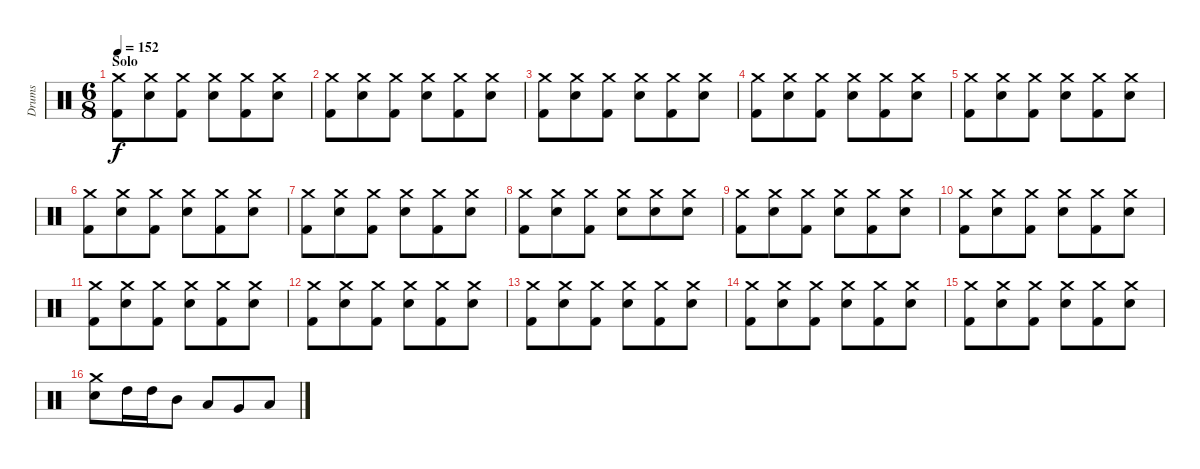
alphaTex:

\track ("Drums" "Drums") {instrument percussion}
\staff {score}
\articulation defaults
\ts (6 8)
\section ("" "Solo")
\tempo 152
\clef neutral
\ks c
("Crash medium (hit)" "Kick (hit) 2").8{dy f} ("Crash medium (hit)" "Electric Snare (hit)").8 ("Crash medium (hit)" "Kick (hit) 2").8 ("Crash medium (hit)" "Electric Snare (hit)").8 ("Crash medium (hit)" "Kick (hit) 2").8 ("Crash medium (hit)" "Electric Snare (hit)").8 |
("Crash medium (hit)" "Kick (hit) 2").8 ("Crash medium (hit)" "Electric Snare (hit)").8 ("Crash medium (hit)" "Kick (hit) 2").8 ("Crash medium (hit)" "Electric Snare (hit)").8 ("Crash medium (hit)" "Kick (hit) 2").8 ("Crash medium (hit)" "Electric Snare (hit)").8 |
("Crash medium (hit)" "Kick (hit) 2").8 ("Crash medium (hit)" "Electric Snare (hit)").8 ("Crash medium (hit)" "Kick (hit) 2").8 ("Crash medium (hit)" "Electric Snare (hit)").8 ("Crash medium (hit)" "Kick (hit) 2").8 ("Crash medium (hit)" "Electric Snare (hit)").8 |
("Crash medium (hit)" "Kick (hit) 2").8 ("Crash medium (hit)" "Electric Snare (hit)").8 ("Crash medium (hit)" "Kick (hit) 2").8 ("Crash medium (hit)" "Electric Snare (hit)").8 ("Crash medium (hit)" "Kick (hit) 2").8 ("Crash medium (hit)" "Electric Snare (hit)").8 |
("Crash medium (hit)" "Kick (hit) 2").8 ("Crash medium (hit)" "Electric Snare (hit)").8 ("Crash medium (hit)" "Kick (hit) 2").8 ("Crash medium (hit)" "Electric Snare (hit)").8 ("Crash medium (hit)" "Kick (hit) 2").8 ("Crash medium (hit)" "Electric Snare (hit)").8 |
("Crash medium (hit)" "Kick (hit) 2").8 ("Crash medium (hit)" "Electric Snare (hit)").8 ("Crash medium (hit)" "Kick (hit) 2").8 ("Crash medium (hit)" "Electric Snare (hit)").8 ("Crash medium (hit)" "Kick (hit) 2").8 ("Crash medium (hit)" "Electric Snare (hit)").8 |
("Crash medium (hit)" "Kick (hit) 2").8 ("Crash medium (hit)" "Electric Snare (hit)").8 ("Crash medium (hit)" "Kick (hit) 2").8 ("Crash medium (hit)" "Electric Snare (hit)").8 ("Crash medium (hit)" "Kick (hit) 2").8 ("Crash medium (hit)" "Electric Snare (hit)").8 |
("Crash medium (hit)" "Kick (hit) 2").8 ("Crash medium (hit)" "Electric Snare (hit)").8 ("Crash medium (hit)" "Kick (hit) 2").8 ("Crash medium (hit)" "Electric Snare (hit)").8 ("Crash medium (hit)" "Electric Snare (hit)").8 ("Crash medium (hit)" "Electric Snare (hit)").8 |
("Crash medium (hit)" "Kick (hit) 2").8 ("Crash medium (hit)" "Electric Snare (hit)").8 ("Crash medium (hit)" "Kick (hit) 2").8 ("Crash medium (hit)" "Electric Snare (hit)").8 ("Crash medium (hit)" "Kick (hit) 2").8 ("Crash medium (hit)" "Electric Snare (hit)").8 |
("Crash medium (hit)" "Kick (hit) 2").8 ("Crash medium (hit)" "Electric Snare (hit)").8 ("Crash medium (hit)" "Kick (hit) 2").8 ("Crash medium (hit)" "Electric Snare (hit)").8 ("Crash medium (hit)" "Kick (hit) 2").8 ("Crash medium (hit)" "Electric Snare (hit)").8 |
("Crash medium (hit)" "Kick (hit) 2").8 ("Crash medium (hit)" "Electric Snare (hit)").8 ("Crash medium (hit)" "Kick (hit) 2").8 ("Crash medium (hit)" "Electric Snare (hit)").8 ("Crash medium (hit)" "Kick (hit) 2").8 ("Crash medium (hit)" "Electric Snare (hit)").8 |
("Crash medium (hit)" "Kick (hit) 2").8 ("Crash medium (hit)" "Electric Snare (hit)").8 ("Crash medium (hit)" "Kick (hit) 2").8 ("Crash medium (hit)" "Electric Snare (hit)").8 ("Crash medium (hit)" "Kick (hit) 2").8 ("Crash medium (hit)" "Electric Snare (hit)").8 |
("Crash medium (hit)" "Kick (hit) 2").8 ("Crash medium (hit)" "Electric Snare (hit)").8 ("Crash medium (hit)" "Kick (hit) 2").8 ("Crash medium (hit)" "Electric Snare (hit)").8 ("Crash medium (hit)" "Kick (hit) 2").8 ("Crash medium (hit)" "Electric Snare (hit)").8 |
("Crash medium (hit)" "Kick (hit) 2").8 ("Crash medium (hit)" "Electric Snare (hit)").8 ("Crash medium (hit)" "Kick (hit) 2").8 ("Crash medium (hit)" "Electric Snare (hit)").8 ("Crash medium (hit)" "Kick (hit) 2").8 ("Crash medium (hit)" "Electric Snare (hit)").8 |
("Crash medium (hit)" "Kick (hit) 2").8 ("Crash medium (hit)" "Electric Snare (hit)").8 ("Crash medium (hit)" "Kick (hit) 2").8 ("Crash medium (hit)" "Electric Snare (hit)").8 ("Crash medium (hit)" "Kick (hit) 2").8 ("Crash medium (hit)" "Electric Snare (hit)").8 |
("Crash medium (hit)" "Electric Snare (hit)").8 "High Tom (hit)".16 "High Tom (hit)".16 "Mid Tom (hit)".8 "Low Tom (hit)".8 "Very Low Tom (hit)".8 "Low Floor Tom (hit)".8
